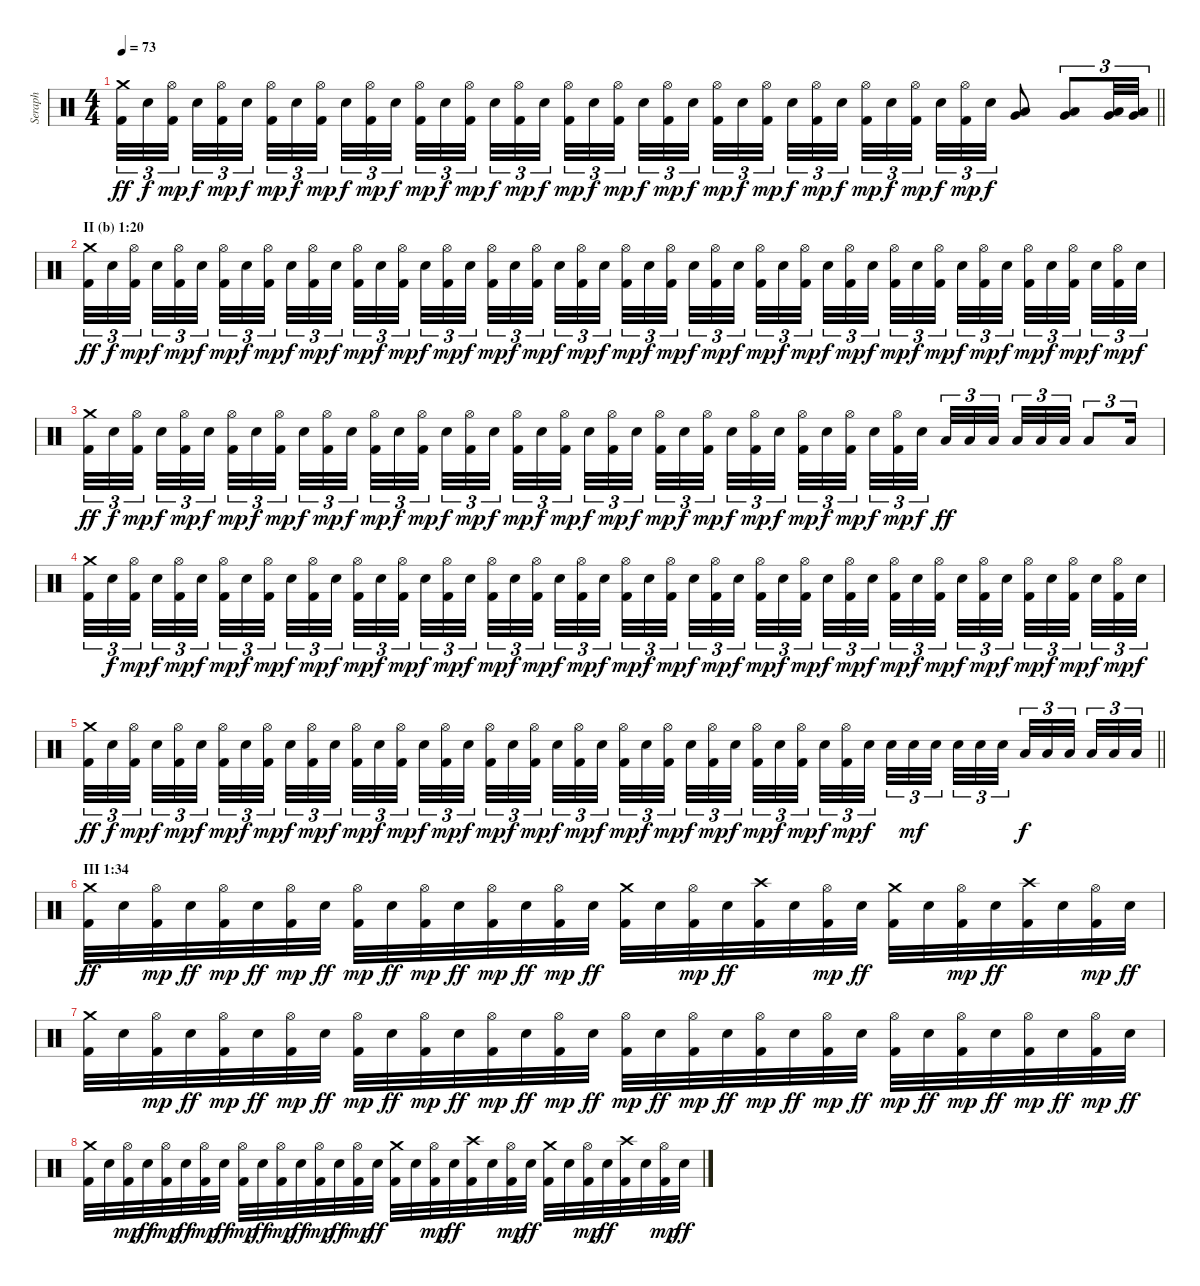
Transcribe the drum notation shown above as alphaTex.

\track ("Seraph" "Seraph") {instrument percussion}
\staff {score}
\articulation defaults
\ts (4 4)
\tempo 73
\clef neutral
\barLineRight lightlight
\ks c
("Kick (hit) 2" "Crash medium (hit)").32{tu (3 2) dy ff} "Electric Snare (hit)".32{tu (3 2) dy f} ("Kick (hit) 2" "Hi-Hat (open)").32{tu (3 2) dy mp beam splitsecondary} "Electric Snare (hit)".32{tu (3 2) dy f} ("Kick (hit) 2" "Hi-Hat (open)").32{tu (3 2) dy mp} "Electric Snare (hit)".32{tu (3 2) dy f beam splitsecondary} ("Kick (hit) 2" "Hi-Hat (open)").32{tu (3 2) dy mp} "Electric Snare (hit)".32{tu (3 2) dy f} ("Kick (hit) 2" "Hi-Hat (open)").32{tu (3 2) dy mp beam splitsecondary} "Electric Snare (hit)".32{tu (3 2) dy f} ("Kick (hit) 2" "Hi-Hat (open)").32{tu (3 2) dy mp} "Electric Snare (hit)".32{tu (3 2) dy f} ("Kick (hit) 2" "Hi-Hat (open)").32{tu (3 2) dy mp} "Electric Snare (hit)".32{tu (3 2) dy f} ("Kick (hit) 2" "Hi-Hat (open)").32{tu (3 2) dy mp beam splitsecondary} "Electric Snare (hit)".32{tu (3 2) dy f} ("Kick (hit) 2" "Hi-Hat (open)").32{tu (3 2) dy mp} "Electric Snare (hit)".32{tu (3 2) dy f beam splitsecondary} ("Kick (hit) 2" "Hi-Hat (open)").32{tu (3 2) dy mp} "Electric Snare (hit)".32{tu (3 2) dy f} ("Kick (hit) 2" "Hi-Hat (open)").32{tu (3 2) dy mp beam splitsecondary} "Electric Snare (hit)".32{tu (3 2) dy f} ("Kick (hit) 2" "Hi-Hat (open)").32{tu (3 2) dy mp} "Electric Snare (hit)".32{tu (3 2) dy f} ("Kick (hit) 2" "Hi-Hat (open)").32{tu (3 2) dy mp} "Electric Snare (hit)".32{tu (3 2) dy f} ("Kick (hit) 2" "Hi-Hat (open)").32{tu (3 2) dy mp beam splitsecondary} "Electric Snare (hit)".32{tu (3 2) dy f} ("Kick (hit) 2" "Hi-Hat (open)").32{tu (3 2) dy mp} "Electric Snare (hit)".32{tu (3 2) dy f beam splitsecondary} ("Kick (hit) 2" "Hi-Hat (open)").32{tu (3 2) dy mp} "Electric Snare (hit)".32{tu (3 2) dy f} ("Kick (hit) 2" "Hi-Hat (open)").32{tu (3 2) dy mp beam splitsecondary} "Electric Snare (hit)".32{tu (3 2) dy f} ("Kick (hit) 2" "Hi-Hat (open)").32{tu (3 2) dy mp} "Electric Snare (hit)".32{tu (3 2) dy f} ("Low Tom (hit)" "Very Low Tom (hit)").8 ("Low Tom (hit)" "Very Low Tom (hit)").8{tu (3 2)} ("Very Low Tom (hit)" "Low Floor Tom (hit)").32{tu (3 2)} ("Very Low Tom (hit)" "Low Floor Tom (hit)").32{tu (3 2)} |
\section ("" "II (b) 1:20")
("Kick (hit) 2" "Crash medium (hit)").32{tu (3 2) dy ff} "Electric Snare (hit)".32{tu (3 2) dy f} ("Kick (hit) 2" "Hi-Hat (open)").32{tu (3 2) dy mp beam splitsecondary} "Electric Snare (hit)".32{tu (3 2) dy f} ("Kick (hit) 2" "Hi-Hat (open)").32{tu (3 2) dy mp} "Electric Snare (hit)".32{tu (3 2) dy f beam splitsecondary} ("Kick (hit) 2" "Hi-Hat (open)").32{tu (3 2) dy mp} "Electric Snare (hit)".32{tu (3 2) dy f} ("Kick (hit) 2" "Hi-Hat (open)").32{tu (3 2) dy mp beam splitsecondary} "Electric Snare (hit)".32{tu (3 2) dy f} ("Kick (hit) 2" "Hi-Hat (open)").32{tu (3 2) dy mp} "Electric Snare (hit)".32{tu (3 2) dy f} ("Kick (hit) 2" "Hi-Hat (open)").32{tu (3 2) dy mp} "Electric Snare (hit)".32{tu (3 2) dy f} ("Kick (hit) 2" "Hi-Hat (open)").32{tu (3 2) dy mp beam splitsecondary} "Electric Snare (hit)".32{tu (3 2) dy f} ("Kick (hit) 2" "Hi-Hat (open)").32{tu (3 2) dy mp} "Electric Snare (hit)".32{tu (3 2) dy f beam splitsecondary} ("Kick (hit) 2" "Hi-Hat (open)").32{tu (3 2) dy mp} "Electric Snare (hit)".32{tu (3 2) dy f} ("Kick (hit) 2" "Hi-Hat (open)").32{tu (3 2) dy mp beam splitsecondary} "Electric Snare (hit)".32{tu (3 2) dy f} ("Kick (hit) 2" "Hi-Hat (open)").32{tu (3 2) dy mp} "Electric Snare (hit)".32{tu (3 2) dy f} ("Kick (hit) 2" "Hi-Hat (open)").32{tu (3 2) dy mp} "Electric Snare (hit)".32{tu (3 2) dy f} ("Kick (hit) 2" "Hi-Hat (open)").32{tu (3 2) dy mp beam splitsecondary} "Electric Snare (hit)".32{tu (3 2) dy f} ("Kick (hit) 2" "Hi-Hat (open)").32{tu (3 2) dy mp} "Electric Snare (hit)".32{tu (3 2) dy f beam splitsecondary} ("Kick (hit) 2" "Hi-Hat (open)").32{tu (3 2) dy mp} "Electric Snare (hit)".32{tu (3 2) dy f} ("Kick (hit) 2" "Hi-Hat (open)").32{tu (3 2) dy mp beam splitsecondary} "Electric Snare (hit)".32{tu (3 2) dy f} ("Kick (hit) 2" "Hi-Hat (open)").32{tu (3 2) dy mp} "Electric Snare (hit)".32{tu (3 2) dy f} ("Kick (hit) 2" "Hi-Hat (open)").32{tu (3 2) dy mp} "Electric Snare (hit)".32{tu (3 2) dy f} ("Kick (hit) 2" "Hi-Hat (open)").32{tu (3 2) dy mp beam splitsecondary} "Electric Snare (hit)".32{tu (3 2) dy f} ("Kick (hit) 2" "Hi-Hat (open)").32{tu (3 2) dy mp} "Electric Snare (hit)".32{tu (3 2) dy f beam splitsecondary} ("Kick (hit) 2" "Hi-Hat (open)").32{tu (3 2) dy mp} "Electric Snare (hit)".32{tu (3 2) dy f} ("Kick (hit) 2" "Hi-Hat (open)").32{tu (3 2) dy mp beam splitsecondary} "Electric Snare (hit)".32{tu (3 2) dy f} ("Kick (hit) 2" "Hi-Hat (open)").32{tu (3 2) dy mp} "Electric Snare (hit)".32{tu (3 2) dy f} |
("Kick (hit) 2" "Crash medium (hit)").32{tu (3 2) dy ff} "Electric Snare (hit)".32{tu (3 2) dy f} ("Kick (hit) 2" "Hi-Hat (open)").32{tu (3 2) dy mp beam splitsecondary} "Electric Snare (hit)".32{tu (3 2) dy f} ("Kick (hit) 2" "Hi-Hat (open)").32{tu (3 2) dy mp} "Electric Snare (hit)".32{tu (3 2) dy f beam splitsecondary} ("Kick (hit) 2" "Hi-Hat (open)").32{tu (3 2) dy mp} "Electric Snare (hit)".32{tu (3 2) dy f} ("Kick (hit) 2" "Hi-Hat (open)").32{tu (3 2) dy mp beam splitsecondary} "Electric Snare (hit)".32{tu (3 2) dy f} ("Kick (hit) 2" "Hi-Hat (open)").32{tu (3 2) dy mp} "Electric Snare (hit)".32{tu (3 2) dy f} ("Kick (hit) 2" "Hi-Hat (open)").32{tu (3 2) dy mp} "Electric Snare (hit)".32{tu (3 2) dy f} ("Kick (hit) 2" "Hi-Hat (open)").32{tu (3 2) dy mp beam splitsecondary} "Electric Snare (hit)".32{tu (3 2) dy f} ("Kick (hit) 2" "Hi-Hat (open)").32{tu (3 2) dy mp} "Electric Snare (hit)".32{tu (3 2) dy f beam splitsecondary} ("Kick (hit) 2" "Hi-Hat (open)").32{tu (3 2) dy mp} "Electric Snare (hit)".32{tu (3 2) dy f} ("Kick (hit) 2" "Hi-Hat (open)").32{tu (3 2) dy mp beam splitsecondary} "Electric Snare (hit)".32{tu (3 2) dy f} ("Kick (hit) 2" "Hi-Hat (open)").32{tu (3 2) dy mp} "Electric Snare (hit)".32{tu (3 2) dy f} ("Kick (hit) 2" "Hi-Hat (open)").32{tu (3 2) dy mp} "Electric Snare (hit)".32{tu (3 2) dy f} ("Kick (hit) 2" "Hi-Hat (open)").32{tu (3 2) dy mp beam splitsecondary} "Electric Snare (hit)".32{tu (3 2) dy f} ("Kick (hit) 2" "Hi-Hat (open)").32{tu (3 2) dy mp} "Electric Snare (hit)".32{tu (3 2) dy f beam splitsecondary} ("Kick (hit) 2" "Hi-Hat (open)").32{tu (3 2) dy mp} "Electric Snare (hit)".32{tu (3 2) dy f} ("Kick (hit) 2" "Hi-Hat (open)").32{tu (3 2) dy mp beam splitsecondary} "Electric Snare (hit)".32{tu (3 2) dy f} ("Kick (hit) 2" "Hi-Hat (open)").32{tu (3 2) dy mp} "Electric Snare (hit)".32{tu (3 2) dy f} "Low Tom (hit)".32{tu (3 2) dy ff} "Low Tom (hit)".32{tu (3 2)} "Low Tom (hit)".32{tu (3 2) beam splitsecondary} "Low Tom (hit)".32{tu (3 2)} "Low Tom (hit)".32{tu (3 2)} "Low Tom (hit)".32{tu (3 2)} "Low Floor Tom (hit)".8{tu (3 2)} "Low Tom (hit)".16{tu (3 2)} |
("Kick (hit) 2" "Crash medium (hit)").32{tu (3 2)} "Electric Snare (hit)".32{tu (3 2) dy f} ("Kick (hit) 2" "Hi-Hat (open)").32{tu (3 2) dy mp beam splitsecondary} "Electric Snare (hit)".32{tu (3 2) dy f} ("Kick (hit) 2" "Hi-Hat (open)").32{tu (3 2) dy mp} "Electric Snare (hit)".32{tu (3 2) dy f beam splitsecondary} ("Kick (hit) 2" "Hi-Hat (open)").32{tu (3 2) dy mp} "Electric Snare (hit)".32{tu (3 2) dy f} ("Kick (hit) 2" "Hi-Hat (open)").32{tu (3 2) dy mp beam splitsecondary} "Electric Snare (hit)".32{tu (3 2) dy f} ("Kick (hit) 2" "Hi-Hat (open)").32{tu (3 2) dy mp} "Electric Snare (hit)".32{tu (3 2) dy f} ("Kick (hit) 2" "Hi-Hat (open)").32{tu (3 2) dy mp} "Electric Snare (hit)".32{tu (3 2) dy f} ("Kick (hit) 2" "Hi-Hat (open)").32{tu (3 2) dy mp beam splitsecondary} "Electric Snare (hit)".32{tu (3 2) dy f} ("Kick (hit) 2" "Hi-Hat (open)").32{tu (3 2) dy mp} "Electric Snare (hit)".32{tu (3 2) dy f beam splitsecondary} ("Kick (hit) 2" "Hi-Hat (open)").32{tu (3 2) dy mp} "Electric Snare (hit)".32{tu (3 2) dy f} ("Kick (hit) 2" "Hi-Hat (open)").32{tu (3 2) dy mp beam splitsecondary} "Electric Snare (hit)".32{tu (3 2) dy f} ("Kick (hit) 2" "Hi-Hat (open)").32{tu (3 2) dy mp} "Electric Snare (hit)".32{tu (3 2) dy f} ("Kick (hit) 2" "Hi-Hat (open)").32{tu (3 2) dy mp} "Electric Snare (hit)".32{tu (3 2) dy f} ("Kick (hit) 2" "Hi-Hat (open)").32{tu (3 2) dy mp beam splitsecondary} "Electric Snare (hit)".32{tu (3 2) dy f} ("Kick (hit) 2" "Hi-Hat (open)").32{tu (3 2) dy mp} "Electric Snare (hit)".32{tu (3 2) dy f beam splitsecondary} ("Kick (hit) 2" "Hi-Hat (open)").32{tu (3 2) dy mp} "Electric Snare (hit)".32{tu (3 2) dy f} ("Kick (hit) 2" "Hi-Hat (open)").32{tu (3 2) dy mp beam splitsecondary} "Electric Snare (hit)".32{tu (3 2) dy f} ("Kick (hit) 2" "Hi-Hat (open)").32{tu (3 2) dy mp} "Electric Snare (hit)".32{tu (3 2) dy f} ("Kick (hit) 2" "Hi-Hat (open)").32{tu (3 2) dy mp} "Electric Snare (hit)".32{tu (3 2) dy f} ("Kick (hit) 2" "Hi-Hat (open)").32{tu (3 2) dy mp beam splitsecondary} "Electric Snare (hit)".32{tu (3 2) dy f} ("Kick (hit) 2" "Hi-Hat (open)").32{tu (3 2) dy mp} "Electric Snare (hit)".32{tu (3 2) dy f beam splitsecondary} ("Kick (hit) 2" "Hi-Hat (open)").32{tu (3 2) dy mp} "Electric Snare (hit)".32{tu (3 2) dy f} ("Kick (hit) 2" "Hi-Hat (open)").32{tu (3 2) dy mp beam splitsecondary} "Electric Snare (hit)".32{tu (3 2) dy f} ("Kick (hit) 2" "Hi-Hat (open)").32{tu (3 2) dy mp} "Electric Snare (hit)".32{tu (3 2) dy f} |
\barLineRight lightlight
("Kick (hit) 2" "Crash medium (hit)").32{tu (3 2) dy ff} "Electric Snare (hit)".32{tu (3 2) dy f} ("Kick (hit) 2" "Hi-Hat (open)").32{tu (3 2) dy mp beam splitsecondary} "Electric Snare (hit)".32{tu (3 2) dy f} ("Kick (hit) 2" "Hi-Hat (open)").32{tu (3 2) dy mp} "Electric Snare (hit)".32{tu (3 2) dy f beam splitsecondary} ("Kick (hit) 2" "Hi-Hat (open)").32{tu (3 2) dy mp} "Electric Snare (hit)".32{tu (3 2) dy f} ("Kick (hit) 2" "Hi-Hat (open)").32{tu (3 2) dy mp beam splitsecondary} "Electric Snare (hit)".32{tu (3 2) dy f} ("Kick (hit) 2" "Hi-Hat (open)").32{tu (3 2) dy mp} "Electric Snare (hit)".32{tu (3 2) dy f} ("Kick (hit) 2" "Hi-Hat (open)").32{tu (3 2) dy mp} "Electric Snare (hit)".32{tu (3 2) dy f} ("Kick (hit) 2" "Hi-Hat (open)").32{tu (3 2) dy mp beam splitsecondary} "Electric Snare (hit)".32{tu (3 2) dy f} ("Kick (hit) 2" "Hi-Hat (open)").32{tu (3 2) dy mp} "Electric Snare (hit)".32{tu (3 2) dy f beam splitsecondary} ("Kick (hit) 2" "Hi-Hat (open)").32{tu (3 2) dy mp} "Electric Snare (hit)".32{tu (3 2) dy f} ("Kick (hit) 2" "Hi-Hat (open)").32{tu (3 2) dy mp beam splitsecondary} "Electric Snare (hit)".32{tu (3 2) dy f} ("Kick (hit) 2" "Hi-Hat (open)").32{tu (3 2) dy mp} "Electric Snare (hit)".32{tu (3 2) dy f} ("Kick (hit) 2" "Hi-Hat (open)").32{tu (3 2) dy mp} "Electric Snare (hit)".32{tu (3 2) dy f} ("Kick (hit) 2" "Hi-Hat (open)").32{tu (3 2) dy mp beam splitsecondary} "Electric Snare (hit)".32{tu (3 2) dy f} ("Kick (hit) 2" "Hi-Hat (open)").32{tu (3 2) dy mp} "Electric Snare (hit)".32{tu (3 2) dy f beam splitsecondary} ("Kick (hit) 2" "Hi-Hat (open)").32{tu (3 2) dy mp} "Electric Snare (hit)".32{tu (3 2) dy f} ("Kick (hit) 2" "Hi-Hat (open)").32{tu (3 2) dy mp beam splitsecondary} "Electric Snare (hit)".32{tu (3 2) dy f} ("Kick (hit) 2" "Hi-Hat (open)").32{tu (3 2) dy mp} "Electric Snare (hit)".32{tu (3 2) dy f} "Electric Snare (hit)".32{tu (3 2)} "Electric Snare (hit)".32{tu (3 2) dy mf} "Electric Snare (hit)".32{tu (3 2) beam splitsecondary} "Electric Snare (hit)".32{tu (3 2)} "Electric Snare (hit)".32{tu (3 2)} "Electric Snare (hit)".32{tu (3 2) beam splitsecondary} "Low Tom (hit)".32{tu (3 2) dy f} "Low Tom (hit)".32{tu (3 2)} "Low Tom (hit)".32{tu (3 2) beam splitsecondary} "Low Tom (hit)".32{tu (3 2)} "Low Tom (hit)".32{tu (3 2)} "Low Tom (hit)".32{tu (3 2)} |
\section ("" "III 1:34")
("Kick (hit) 2" "Crash medium (hit)").32{dy ff} "Electric Snare (hit)".32 ("Kick (hit) 2" "Hi-Hat (open)").32{dy mp} "Electric Snare (hit)".32{dy ff} ("Kick (hit) 2" "Hi-Hat (open)").32{dy mp} "Electric Snare (hit)".32{dy ff} ("Kick (hit) 2" "Hi-Hat (open)").32{dy mp} "Electric Snare (hit)".32{dy ff} ("Kick (hit) 2" "Hi-Hat (open)").32{dy mp} "Electric Snare (hit)".32{dy ff} ("Kick (hit) 2" "Hi-Hat (open)").32{dy mp} "Electric Snare (hit)".32{dy ff} ("Kick (hit) 2" "Hi-Hat (open)").32{dy mp} "Electric Snare (hit)".32{dy ff} ("Kick (hit) 2" "Hi-Hat (open)").32{dy mp} "Electric Snare (hit)".32{dy ff} ("Kick (hit) 2" "Crash medium (hit)").32 "Electric Snare (hit)".32 ("Kick (hit) 2" "Hi-Hat (open)").32{dy mp} "Electric Snare (hit)".32{dy ff} ("Kick (hit) 2" "Crash high (hit)").32 "Electric Snare (hit)".32 ("Kick (hit) 2" "Hi-Hat (open)").32{dy mp} "Electric Snare (hit)".32{dy ff} ("Kick (hit) 2" "Crash medium (hit)").32 "Electric Snare (hit)".32 ("Kick (hit) 2" "Hi-Hat (open)").32{dy mp} "Electric Snare (hit)".32{dy ff} ("Kick (hit) 2" "Crash high (hit)").32 "Electric Snare (hit)".32 ("Kick (hit) 2" "Hi-Hat (open)").32{dy mp} "Electric Snare (hit)".32{dy ff} |
("Kick (hit) 2" "Crash medium (hit)").32 "Electric Snare (hit)".32 ("Kick (hit) 2" "Hi-Hat (open)").32{dy mp} "Electric Snare (hit)".32{dy ff} ("Kick (hit) 2" "Hi-Hat (open)").32{dy mp} "Electric Snare (hit)".32{dy ff} ("Kick (hit) 2" "Hi-Hat (open)").32{dy mp} "Electric Snare (hit)".32{dy ff} ("Kick (hit) 2" "Hi-Hat (open)").32{dy mp} "Electric Snare (hit)".32{dy ff} ("Kick (hit) 2" "Hi-Hat (open)").32{dy mp} "Electric Snare (hit)".32{dy ff} ("Kick (hit) 2" "Hi-Hat (open)").32{dy mp} "Electric Snare (hit)".32{dy ff} ("Kick (hit) 2" "Hi-Hat (open)").32{dy mp} "Electric Snare (hit)".32{dy ff} ("Kick (hit) 2" "Hi-Hat (open)").32{dy mp} "Electric Snare (hit)".32{dy ff} ("Kick (hit) 2" "Hi-Hat (open)").32{dy mp} "Electric Snare (hit)".32{dy ff} ("Kick (hit) 2" "Hi-Hat (open)").32{dy mp} "Electric Snare (hit)".32{dy ff} ("Kick (hit) 2" "Hi-Hat (open)").32{dy mp} "Electric Snare (hit)".32{dy ff} ("Kick (hit) 2" "Hi-Hat (open)").32{dy mp} "Electric Snare (hit)".32{dy ff} ("Kick (hit) 2" "Hi-Hat (open)").32{dy mp} "Electric Snare (hit)".32{dy ff} ("Kick (hit) 2" "Hi-Hat (open)").32{dy mp} "Electric Snare (hit)".32{dy ff} ("Kick (hit) 2" "Hi-Hat (open)").32{dy mp} "Electric Snare (hit)".32{dy ff} |
("Kick (hit) 2" "Crash medium (hit)").32 "Electric Snare (hit)".32 ("Kick (hit) 2" "Hi-Hat (open)").32{dy mp} "Electric Snare (hit)".32{dy ff} ("Kick (hit) 2" "Hi-Hat (open)").32{dy mp} "Electric Snare (hit)".32{dy ff} ("Kick (hit) 2" "Hi-Hat (open)").32{dy mp} "Electric Snare (hit)".32{dy ff} ("Kick (hit) 2" "Hi-Hat (open)").32{dy mp} "Electric Snare (hit)".32{dy ff} ("Kick (hit) 2" "Hi-Hat (open)").32{dy mp} "Electric Snare (hit)".32{dy ff} ("Kick (hit) 2" "Hi-Hat (open)").32{dy mp} "Electric Snare (hit)".32{dy ff} ("Kick (hit) 2" "Hi-Hat (open)").32{dy mp} "Electric Snare (hit)".32{dy ff} ("Kick (hit) 2" "Crash medium (hit)").32 "Electric Snare (hit)".32 ("Kick (hit) 2" "Hi-Hat (open)").32{dy mp} "Electric Snare (hit)".32{dy ff} ("Kick (hit) 2" "Crash high (hit)").32 "Electric Snare (hit)".32 ("Kick (hit) 2" "Hi-Hat (open)").32{dy mp} "Electric Snare (hit)".32{dy ff} ("Kick (hit) 2" "Crash medium (hit)").32 "Electric Snare (hit)".32 ("Kick (hit) 2" "Hi-Hat (open)").32{dy mp} "Electric Snare (hit)".32{dy ff} ("Kick (hit) 2" "Crash high (hit)").32 "Electric Snare (hit)".32 ("Kick (hit) 2" "Hi-Hat (open)").32{dy mp} "Electric Snare (hit)".32{dy ff}
